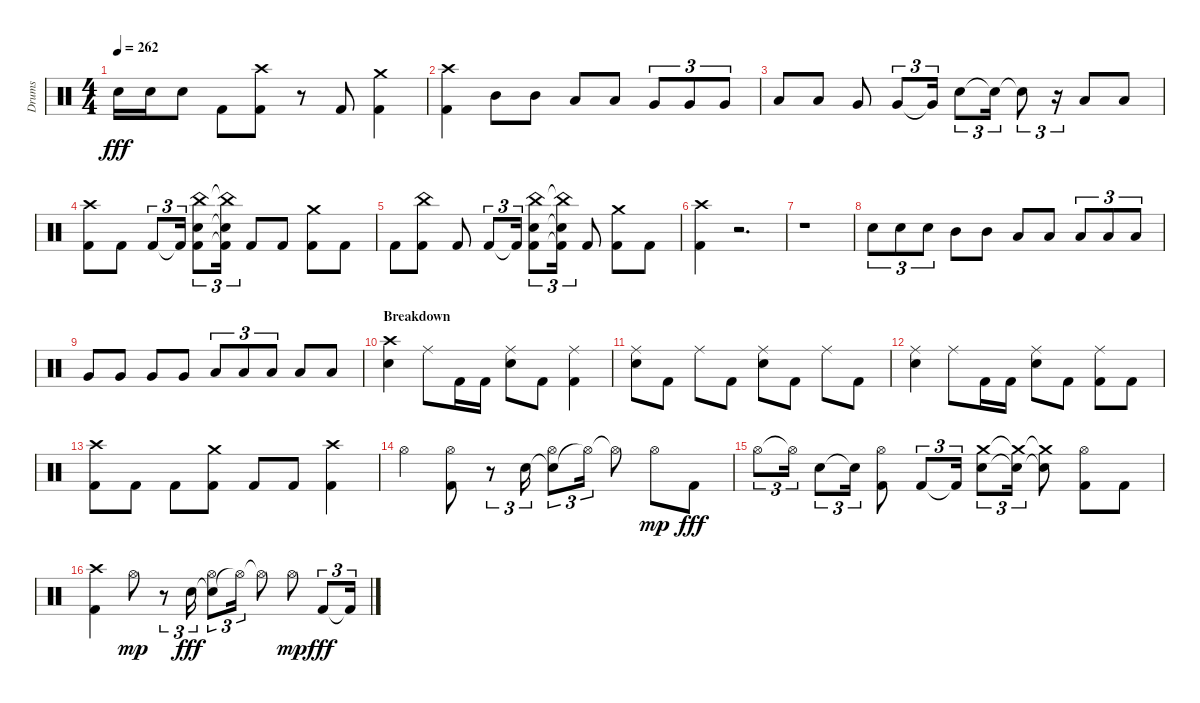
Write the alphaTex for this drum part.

\track ("Drums" "Drums") {instrument percussion}
\staff {score}
\articulation defaults
\ts (4 4)
\tempo 262
\clef neutral
\ks aminor "Snare (hit) 2".16{dy fff} "Snare (hit) 2".16 "Snare (hit) 2".8 "Kick (hit) 2".8
("Kick (hit) 2" "Crash high (hit)").8 r.8 "Kick (hit) 2".8 ("Kick (hit) 2" "Crash medium (hit)").4 |
("Kick (hit) 2" "Crash high (hit)").4 "Mid Tom (hit)".8 "Mid Tom (hit)".8 "Low Tom (hit)".8 "Low Tom (hit)".8 "Very Low Tom (hit)".8{tu (3 2)} "Very Low Tom (hit)".8{tu (3 2)} "Very Low Tom (hit)".8{tu (3 2)} |
"Low Floor Tom (hit)".8 "Low Floor Tom (hit)".8 "Very Low Tom (hit)".8 "Very Low Tom (hit)".8{tu (3 2)} "Very Low Tom (hit)"{t}.16{tu (3 2)} "Snare (hit) 2".8{tu (3 2)} "Snare (hit) 2"{t}.16{tu (3 2)} "Snare (hit) 2"{t}.8{tu (3 2)} r.16{tu (3 2)} "Low Floor Tom (hit)".8 "Low Floor Tom (hit)".8 |
("Kick (hit) 2" "Crash high (hit)").8 "Kick (hit) 2".8 "Kick (hit) 2".8{tu (3 2)} "Kick (hit) 2"{t}.16{tu (3 2)} ("Kick (hit) 2" "Snare (hit) 2" "China (hit)").8{tu (3 2)} ("Kick (hit) 2"{t} "Snare (hit) 2"{t} "China (hit)"{t}).16{tu (3 2)} "Kick (hit) 2".8 "Kick (hit) 2".8 ("Kick (hit) 2" "Crash medium (hit)").8 "Kick (hit) 2".8 |
"Kick (hit) 2".8 ("Kick (hit) 2" "China (hit)").8 "Kick (hit) 2".8 "Kick (hit) 2".8{tu (3 2)} "Kick (hit) 2"{t}.16{tu (3 2)} ("Snare (hit) 2" "Kick (hit) 2" "China (hit)").8{tu (3 2)} ("Snare (hit) 2"{t} "Kick (hit) 2"{t} "China (hit)"{t}).16{tu (3 2)} "Kick (hit) 2".8 ("Kick (hit) 2" "Crash medium (hit)").8 "Kick (hit) 2".8 |
("Kick (hit) 2" "Crash high (hit)").4 r.2{d} |
r.1 |
"Snare (hit) 2".8{tu (3 2)} "Snare (hit) 2".8{tu (3 2)} "Snare (hit) 2".8{tu (3 2)} "Mid Tom (hit)".8 "Mid Tom (hit)".8 "Low Tom (hit)".8 "Low Tom (hit)".8 "Low Tom (hit)".8{tu (3 2)} "Low Tom (hit)".8{tu (3 2)} "Low Tom (hit)".8{tu (3 2)} |
"Very Low Tom (hit)".8 "Very Low Tom (hit)".8 "Very Low Tom (hit)".8 "Very Low Tom (hit)".8 "Low Floor Tom (hit)".8{tu (3 2)} "Low Floor Tom (hit)".8{tu (3 2)} "Low Floor Tom (hit)".8{tu (3 2)} "Low Floor Tom (hit)".8 "Low Floor Tom (hit)".8 |
\section ("" "Breakdown")
("Snare (hit) 2" "Crash high (hit)").4 "Ride (middle)".8 "Kick (hit) 2".16 "Kick (hit) 2".16 ("Snare (hit) 2" "Ride (middle)").8 "Kick (hit) 2".8 ("Kick (hit) 2" "Ride (middle)").4 |
("Snare (hit) 2" "Ride (middle)").8 "Kick (hit) 2".8 "Ride (middle)".8 "Kick (hit) 2".8 ("Snare (hit) 2" "Ride (middle)").8 "Kick (hit) 2".8 "Ride (middle)".8 "Kick (hit) 2".8 |
("Snare (hit) 2" "Ride (middle)").4 "Ride (middle)".8 "Kick (hit) 2".16 "Kick (hit) 2".16 ("Snare (hit) 2" "Ride (middle)").8 "Kick (hit) 2".8 ("Kick (hit) 2" "Ride (middle)").8 "Kick (hit) 2".8 |
("Kick (hit) 2" "Crash high (hit)").8 "Kick (hit) 2".8 "Kick (hit) 2".8 ("Kick (hit) 2" "Crash medium (hit)").8 "Kick (hit) 2".8 "Kick (hit) 2".8 ("Kick (hit) 2" "Crash high (hit)").4 |
"Hi-Hat (open)".4 ("Kick (hit) 2" "Hi-Hat (open)").8 r.8{tu (3 2)} "Snare (hit) 2".16{tu (3 2)} ("Snare (hit) 2"{t} "Hi-Hat (open)").8{tu (3 2)} "Hi-Hat (open)"{t}.16{tu (3 2)} "Hi-Hat (open)"{t}.8 "Hi-Hat (open)".8{dy mp} "Kick (hit) 2".8{dy fff} |
"Hi-Hat (open)".8{tu (3 2)} "Hi-Hat (open)"{t}.16{tu (3 2)} "Snare (hit) 2".8{tu (3 2)} "Snare (hit) 2"{t}.16{tu (3 2)} ("Kick (hit) 2" "Hi-Hat (open)").8 "Kick (hit) 2".8{tu (3 2)} "Kick (hit) 2"{t}.16{tu (3 2)} ("Snare (hit) 2" "Crash medium (hit)").8{tu (3 2)} ("Snare (hit) 2"{t} "Crash medium (hit)"{t}).16{tu (3 2)} ("Snare (hit) 2"{t} "Crash medium (hit)"{t}).8 ("Kick (hit) 2" "Hi-Hat (open)").8 "Kick (hit) 2".8 |
("Kick (hit) 2" "Crash high (hit)").4 "Hi-Hat (open)".8{dy mp} r.8{tu (3 2)} "Snare (hit) 2".16{tu (3 2) dy fff} ("Snare (hit) 2"{t} "Hi-Hat (open)").8{tu (3 2)} "Hi-Hat (open)"{t}.16{tu (3 2)} "Hi-Hat (open)"{t}.8 "Hi-Hat (open)".8{dy mp} "Kick (hit) 2".8{tu (3 2) dy fff} "Kick (hit) 2"{t}.16{tu (3 2)}
